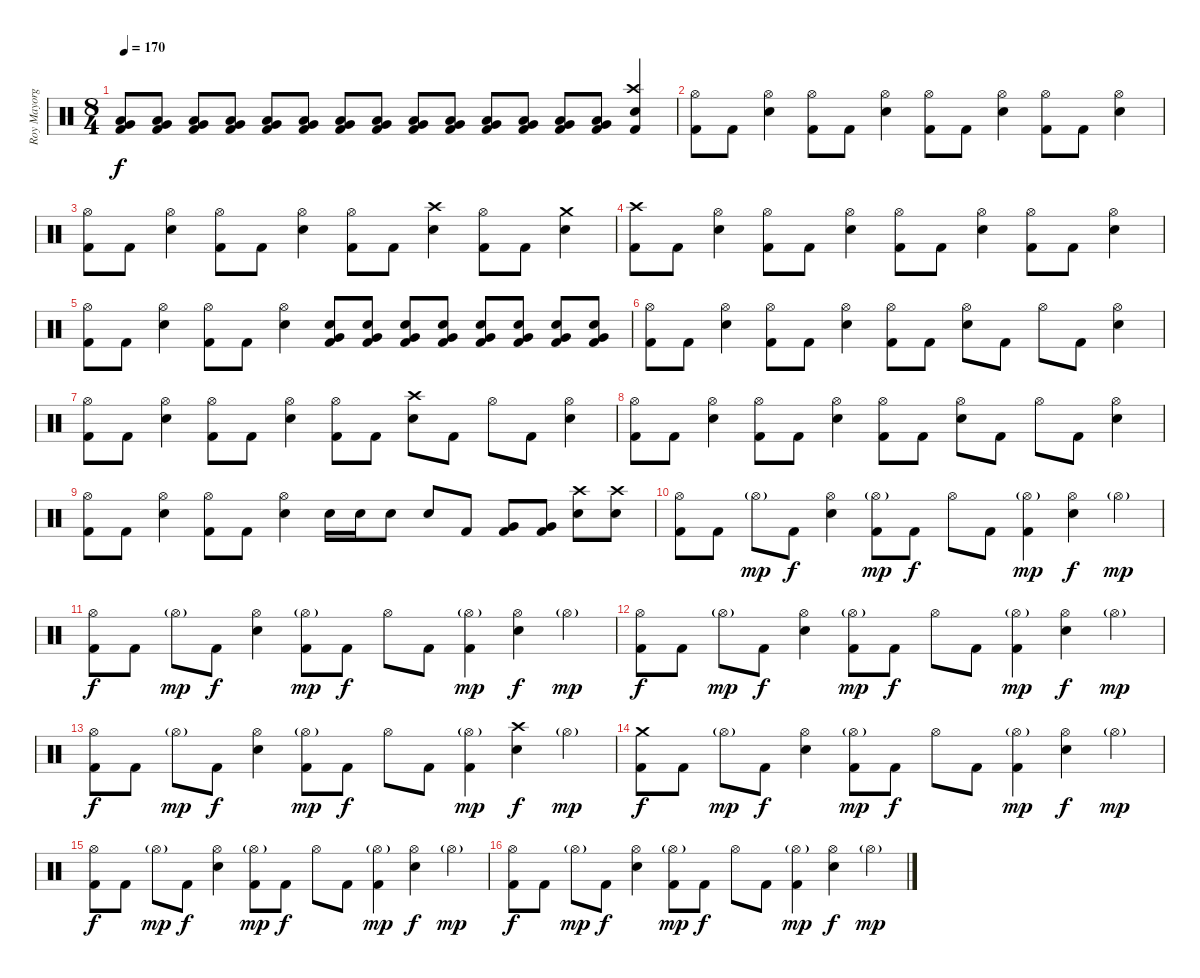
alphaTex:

\track ("Roy Mayorga" "Roy Mayorg") {instrument percussion}
\staff {score}
\articulation defaults
\ts (8 4)
\tempo 170
\clef neutral
\ks c
("Low Floor Tom (hit)" "Very Low Tom (hit)" "Kick (hit) 2").8{dy f} ("Low Floor Tom (hit)" "Very Low Tom (hit)" "Kick (hit) 2").8 ("Low Floor Tom (hit)" "Very Low Tom (hit)" "Kick (hit) 2").8 ("Low Floor Tom (hit)" "Very Low Tom (hit)" "Kick (hit) 2").8 ("Low Floor Tom (hit)" "Very Low Tom (hit)" "Kick (hit) 2").8 ("Low Floor Tom (hit)" "Very Low Tom (hit)" "Kick (hit) 2").8 ("Low Floor Tom (hit)" "Very Low Tom (hit)" "Kick (hit) 2").8 ("Low Floor Tom (hit)" "Very Low Tom (hit)" "Kick (hit) 2").8 ("Low Floor Tom (hit)" "Very Low Tom (hit)" "Kick (hit) 2").8 ("Low Floor Tom (hit)" "Very Low Tom (hit)" "Kick (hit) 2").8 ("Low Floor Tom (hit)" "Very Low Tom (hit)" "Kick (hit) 2").8 ("Low Floor Tom (hit)" "Very Low Tom (hit)" "Kick (hit) 2").8 ("Low Floor Tom (hit)" "Very Low Tom (hit)" "Kick (hit) 2").8 ("Low Floor Tom (hit)" "Very Low Tom (hit)" "Kick (hit) 2").8 ("Crash high (hit)" "Electric Snare (hit)" "Kick (hit) 2").4 |
("Hi-Hat (open)" "Kick (hit) 2").8 "Kick (hit) 2".8 ("Hi-Hat (open)" "Electric Snare (hit)").4 ("Hi-Hat (open)" "Kick (hit) 2").8 "Kick (hit) 2".8 ("Hi-Hat (open)" "Electric Snare (hit)").4 ("Hi-Hat (open)" "Kick (hit) 2").8 "Kick (hit) 2".8 ("Hi-Hat (open)" "Electric Snare (hit)").4 ("Hi-Hat (open)" "Kick (hit) 2").8 "Kick (hit) 2".8 ("Hi-Hat (open)" "Electric Snare (hit)").4 |
("Hi-Hat (open)" "Kick (hit) 2").8 "Kick (hit) 2".8 ("Hi-Hat (open)" "Electric Snare (hit)").4 ("Hi-Hat (open)" "Kick (hit) 2").8 "Kick (hit) 2".8 ("Hi-Hat (open)" "Electric Snare (hit)").4 ("Hi-Hat (open)" "Kick (hit) 2").8 "Kick (hit) 2".8 ("Crash high (hit)" "Electric Snare (hit)").4 ("Hi-Hat (open)" "Kick (hit) 2").8 "Kick (hit) 2".8 ("Crash medium (hit)" "Electric Snare (hit)").4 |
("Crash high (hit)" "Kick (hit) 2").8 "Kick (hit) 2".8 ("Hi-Hat (open)" "Electric Snare (hit)").4 ("Hi-Hat (open)" "Kick (hit) 2").8 "Kick (hit) 2".8 ("Hi-Hat (open)" "Electric Snare (hit)").4 ("Hi-Hat (open)" "Kick (hit) 2").8 "Kick (hit) 2".8 ("Hi-Hat (open)" "Electric Snare (hit)").4 ("Hi-Hat (open)" "Kick (hit) 2").8 "Kick (hit) 2".8 ("Hi-Hat (open)" "Electric Snare (hit)").4 |
("Hi-Hat (open)" "Kick (hit) 2").8 "Kick (hit) 2".8 ("Hi-Hat (open)" "Electric Snare (hit)").4 ("Hi-Hat (open)" "Kick (hit) 2").8 "Kick (hit) 2".8 ("Hi-Hat (open)" "Electric Snare (hit)").4 ("Electric Snare (hit)" "Very Low Tom (hit)" "Kick (hit) 2").8 ("Electric Snare (hit)" "Very Low Tom (hit)" "Kick (hit) 2").8 ("Electric Snare (hit)" "Very Low Tom (hit)" "Kick (hit) 2").8 ("Electric Snare (hit)" "Very Low Tom (hit)" "Kick (hit) 2").8 ("Electric Snare (hit)" "Very Low Tom (hit)" "Kick (hit) 2").8 ("Electric Snare (hit)" "Very Low Tom (hit)" "Kick (hit) 2").8 ("Electric Snare (hit)" "Very Low Tom (hit)" "Kick (hit) 2").8 ("Electric Snare (hit)" "Very Low Tom (hit)" "Kick (hit) 2").8 |
("Hi-Hat (open)" "Kick (hit) 2").8 "Kick (hit) 2".8 ("Hi-Hat (open)" "Electric Snare (hit)").4 ("Hi-Hat (open)" "Kick (hit) 2").8 "Kick (hit) 2".8 ("Hi-Hat (open)" "Electric Snare (hit)").4 ("Hi-Hat (open)" "Kick (hit) 2").8 "Kick (hit) 2".8 ("Hi-Hat (open)" "Electric Snare (hit)").8 "Kick (hit) 2".8 "Hi-Hat (open)".8 "Kick (hit) 2".8 ("Hi-Hat (open)" "Electric Snare (hit)").4 |
("Hi-Hat (open)" "Kick (hit) 2").8 "Kick (hit) 2".8 ("Hi-Hat (open)" "Electric Snare (hit)").4 ("Hi-Hat (open)" "Kick (hit) 2").8 "Kick (hit) 2".8 ("Hi-Hat (open)" "Electric Snare (hit)").4 ("Hi-Hat (open)" "Kick (hit) 2").8 "Kick (hit) 2".8 ("Crash high (hit)" "Electric Snare (hit)").8 "Kick (hit) 2".8 "Hi-Hat (open)".8 "Kick (hit) 2".8 ("Hi-Hat (open)" "Electric Snare (hit)").4 |
("Hi-Hat (open)" "Kick (hit) 2").8 "Kick (hit) 2".8 ("Hi-Hat (open)" "Electric Snare (hit)").4 ("Hi-Hat (open)" "Kick (hit) 2").8 "Kick (hit) 2".8 ("Hi-Hat (open)" "Electric Snare (hit)").4 ("Hi-Hat (open)" "Kick (hit) 2").8 "Kick (hit) 2".8 ("Hi-Hat (open)" "Electric Snare (hit)").8 "Kick (hit) 2".8 "Hi-Hat (open)".8 "Kick (hit) 2".8 ("Hi-Hat (open)" "Electric Snare (hit)").4 |
("Hi-Hat (open)" "Kick (hit) 2").8 "Kick (hit) 2".8 ("Hi-Hat (open)" "Electric Snare (hit)").4 ("Hi-Hat (open)" "Kick (hit) 2").8 "Kick (hit) 2".8 ("Hi-Hat (open)" "Electric Snare (hit)").4 "Electric Snare (hit)".16 "Electric Snare (hit)".16 "Electric Snare (hit)".8 "Electric Snare (hit)".8 "Kick (hit) 2".8 ("Very Low Tom (hit)" "Kick (hit) 2").8 ("Very Low Tom (hit)" "Kick (hit) 2").8 ("Crash high (hit)" "Electric Snare (hit)").8 ("Crash high (hit)" "Electric Snare (hit)").8 |
("Hi-Hat (open)" "Kick (hit) 2").8 "Kick (hit) 2".8 "Hi-Hat (open)"{g}.8{dy mp} "Kick (hit) 2".8{dy f} ("Hi-Hat (open)" "Electric Snare (hit)").4 ("Hi-Hat (open)"{g} "Kick (hit) 2").8{dy mp} "Kick (hit) 2".8{dy f} "Hi-Hat (open)".8 "Kick (hit) 2".8 ("Hi-Hat (open)"{g} "Kick (hit) 2").4{dy mp} ("Hi-Hat (open)" "Electric Snare (hit)").4{dy f} "Hi-Hat (open)"{g}.4{dy mp} |
("Hi-Hat (open)" "Kick (hit) 2").8{dy f} "Kick (hit) 2".8 "Hi-Hat (open)"{g}.8{dy mp} "Kick (hit) 2".8{dy f} ("Hi-Hat (open)" "Electric Snare (hit)").4 ("Hi-Hat (open)"{g} "Kick (hit) 2").8{dy mp} "Kick (hit) 2".8{dy f} "Hi-Hat (open)".8 "Kick (hit) 2".8 ("Hi-Hat (open)"{g} "Kick (hit) 2").4{dy mp} ("Hi-Hat (open)" "Electric Snare (hit)").4{dy f} "Hi-Hat (open)"{g}.4{dy mp} |
("Hi-Hat (open)" "Kick (hit) 2").8{dy f} "Kick (hit) 2".8 "Hi-Hat (open)"{g}.8{dy mp} "Kick (hit) 2".8{dy f} ("Hi-Hat (open)" "Electric Snare (hit)").4 ("Hi-Hat (open)"{g} "Kick (hit) 2").8{dy mp} "Kick (hit) 2".8{dy f} "Hi-Hat (open)".8 "Kick (hit) 2".8 ("Hi-Hat (open)"{g} "Kick (hit) 2").4{dy mp} ("Hi-Hat (open)" "Electric Snare (hit)").4{dy f} "Hi-Hat (open)"{g}.4{dy mp} |
("Hi-Hat (open)" "Kick (hit) 2").8{dy f} "Kick (hit) 2".8 "Hi-Hat (open)"{g}.8{dy mp} "Kick (hit) 2".8{dy f} ("Hi-Hat (open)" "Electric Snare (hit)").4 ("Hi-Hat (open)"{g} "Kick (hit) 2").8{dy mp} "Kick (hit) 2".8{dy f} "Hi-Hat (open)".8 "Kick (hit) 2".8 ("Hi-Hat (open)"{g} "Kick (hit) 2").4{dy mp} ("Crash high (hit)" "Electric Snare (hit)").4{dy f} "Hi-Hat (open)"{g}.4{dy mp} |
("Crash medium (hit)" "Kick (hit) 2").8{dy f} "Kick (hit) 2".8 "Hi-Hat (open)"{g}.8{dy mp} "Kick (hit) 2".8{dy f} ("Hi-Hat (open)" "Electric Snare (hit)").4 ("Hi-Hat (open)"{g} "Kick (hit) 2").8{dy mp} "Kick (hit) 2".8{dy f} "Hi-Hat (open)".8 "Kick (hit) 2".8 ("Hi-Hat (open)"{g} "Kick (hit) 2").4{dy mp} ("Hi-Hat (open)" "Electric Snare (hit)").4{dy f} "Hi-Hat (open)"{g}.4{dy mp} |
("Hi-Hat (open)" "Kick (hit) 2").8{dy f} "Kick (hit) 2".8 "Hi-Hat (open)"{g}.8{dy mp} "Kick (hit) 2".8{dy f} ("Hi-Hat (open)" "Electric Snare (hit)").4 ("Hi-Hat (open)"{g} "Kick (hit) 2").8{dy mp} "Kick (hit) 2".8{dy f} "Hi-Hat (open)".8 "Kick (hit) 2".8 ("Hi-Hat (open)"{g} "Kick (hit) 2").4{dy mp} ("Hi-Hat (open)" "Electric Snare (hit)").4{dy f} "Hi-Hat (open)"{g}.4{dy mp} |
("Hi-Hat (open)" "Kick (hit) 2").8{dy f} "Kick (hit) 2".8 "Hi-Hat (open)"{g}.8{dy mp} "Kick (hit) 2".8{dy f} ("Hi-Hat (open)" "Electric Snare (hit)").4 ("Hi-Hat (open)"{g} "Kick (hit) 2").8{dy mp} "Kick (hit) 2".8{dy f} "Hi-Hat (open)".8 "Kick (hit) 2".8 ("Hi-Hat (open)"{g} "Kick (hit) 2").4{dy mp} ("Hi-Hat (open)" "Electric Snare (hit)").4{dy f} "Hi-Hat (open)"{g}.4{dy mp}
